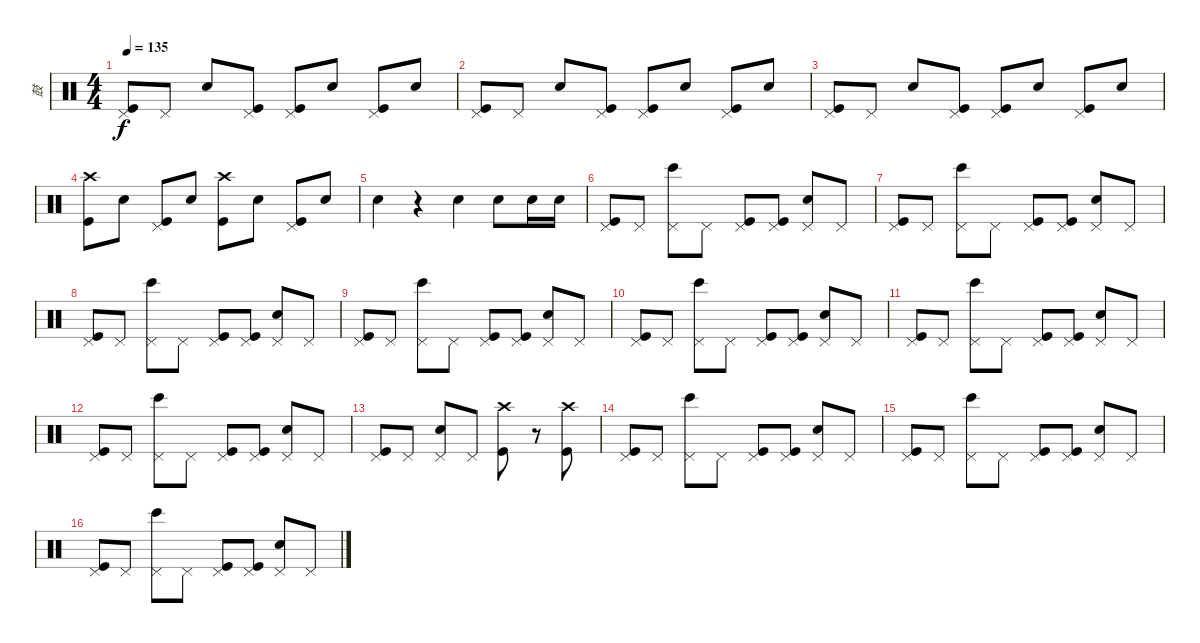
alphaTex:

\track ("鼓" "鼓") {instrument percussion}
\staff {score}
\articulation defaults
\ts (4 4)
\tempo 135
\clef neutral
\ks c
("Pedal Hi-Hat (hit)" "Kick (hit)").8{dy f} "Pedal Hi-Hat (hit)".8 "Snare (hit) 2".8 ("Pedal Hi-Hat (hit)" "Kick (hit)").8 ("Pedal Hi-Hat (hit)" "Kick (hit)").8 "Snare (hit) 2".8 ("Pedal Hi-Hat (hit)" "Kick (hit)").8 "Snare (hit) 2".8 |
("Pedal Hi-Hat (hit)" "Kick (hit)").8 "Pedal Hi-Hat (hit)".8 "Snare (hit) 2".8 ("Pedal Hi-Hat (hit)" "Kick (hit)").8 ("Pedal Hi-Hat (hit)" "Kick (hit)").8 "Snare (hit) 2".8 ("Pedal Hi-Hat (hit)" "Kick (hit)").8 "Snare (hit) 2".8 |
("Pedal Hi-Hat (hit)" "Kick (hit)").8 "Pedal Hi-Hat (hit)".8 "Snare (hit) 2".8 ("Pedal Hi-Hat (hit)" "Kick (hit)").8 ("Pedal Hi-Hat (hit)" "Kick (hit)").8 "Snare (hit) 2".8 ("Pedal Hi-Hat (hit)" "Kick (hit)").8 "Snare (hit) 2".8 |
("Crash high (hit)" "Kick (hit)").8 "Snare (hit) 2".8 ("Pedal Hi-Hat (hit)" "Kick (hit)").8 "Snare (hit) 2".8 ("Crash high (hit)" "Kick (hit)").8 "Snare (hit) 2".8 ("Pedal Hi-Hat (hit)" "Kick (hit)").8 "Snare (hit) 2".8 |
"Snare (hit) 2".4 r.4 "Snare (hit) 2".4 "Snare (hit) 2".8 "Snare (hit) 2".16 "Snare (hit) 2".16 |
("Pedal Hi-Hat (hit)" "Kick (hit)").8 "Pedal Hi-Hat (hit)".8 ("Pedal Hi-Hat (hit)" "Bongo High (hit)").8 "Pedal Hi-Hat (hit)".8 ("Pedal Hi-Hat (hit)" "Kick (hit)").8 ("Pedal Hi-Hat (hit)" "Kick (hit)").8 ("Pedal Hi-Hat (hit)" "Snare (hit) 2").8 "Pedal Hi-Hat (hit)".8 |
("Pedal Hi-Hat (hit)" "Kick (hit)").8 "Pedal Hi-Hat (hit)".8 ("Pedal Hi-Hat (hit)" "Bongo High (hit)").8 "Pedal Hi-Hat (hit)".8 ("Pedal Hi-Hat (hit)" "Kick (hit)").8 ("Pedal Hi-Hat (hit)" "Kick (hit)").8 ("Pedal Hi-Hat (hit)" "Snare (hit) 2").8 "Pedal Hi-Hat (hit)".8 |
("Pedal Hi-Hat (hit)" "Kick (hit)").8 "Pedal Hi-Hat (hit)".8 ("Pedal Hi-Hat (hit)" "Bongo High (hit)").8 "Pedal Hi-Hat (hit)".8 ("Pedal Hi-Hat (hit)" "Kick (hit)").8 ("Pedal Hi-Hat (hit)" "Kick (hit)").8 ("Pedal Hi-Hat (hit)" "Snare (hit) 2").8 "Pedal Hi-Hat (hit)".8 |
("Pedal Hi-Hat (hit)" "Kick (hit)").8 "Pedal Hi-Hat (hit)".8 ("Pedal Hi-Hat (hit)" "Bongo High (hit)").8 "Pedal Hi-Hat (hit)".8 ("Pedal Hi-Hat (hit)" "Kick (hit)").8 ("Pedal Hi-Hat (hit)" "Kick (hit)").8 ("Pedal Hi-Hat (hit)" "Snare (hit) 2").8 "Pedal Hi-Hat (hit)".8 |
("Pedal Hi-Hat (hit)" "Kick (hit)").8 "Pedal Hi-Hat (hit)".8 ("Pedal Hi-Hat (hit)" "Bongo High (hit)").8 "Pedal Hi-Hat (hit)".8 ("Pedal Hi-Hat (hit)" "Kick (hit)").8 ("Pedal Hi-Hat (hit)" "Kick (hit)").8 ("Pedal Hi-Hat (hit)" "Snare (hit) 2").8 "Pedal Hi-Hat (hit)".8 |
("Pedal Hi-Hat (hit)" "Kick (hit)").8 "Pedal Hi-Hat (hit)".8 ("Pedal Hi-Hat (hit)" "Bongo High (hit)").8 "Pedal Hi-Hat (hit)".8 ("Pedal Hi-Hat (hit)" "Kick (hit)").8 ("Pedal Hi-Hat (hit)" "Kick (hit)").8 ("Pedal Hi-Hat (hit)" "Snare (hit) 2").8 "Pedal Hi-Hat (hit)".8 |
("Pedal Hi-Hat (hit)" "Kick (hit)").8 "Pedal Hi-Hat (hit)".8 ("Pedal Hi-Hat (hit)" "Bongo High (hit)").8 "Pedal Hi-Hat (hit)".8 ("Pedal Hi-Hat (hit)" "Kick (hit)").8 ("Pedal Hi-Hat (hit)" "Kick (hit)").8 ("Pedal Hi-Hat (hit)" "Snare (hit) 2").8 "Pedal Hi-Hat (hit)".8 |
("Pedal Hi-Hat (hit)" "Kick (hit)").8 "Pedal Hi-Hat (hit)".8 ("Pedal Hi-Hat (hit)" "Snare (hit) 2").8 "Pedal Hi-Hat (hit)".8 ("Crash high (hit)" "Kick (hit)").8 r.8 ("Crash high (hit)" "Kick (hit)").8 |
("Pedal Hi-Hat (hit)" "Kick (hit)").8 "Pedal Hi-Hat (hit)".8 ("Pedal Hi-Hat (hit)" "Bongo High (hit)").8 "Pedal Hi-Hat (hit)".8 ("Pedal Hi-Hat (hit)" "Kick (hit)").8 ("Pedal Hi-Hat (hit)" "Kick (hit)").8 ("Pedal Hi-Hat (hit)" "Snare (hit) 2").8 "Pedal Hi-Hat (hit)".8 |
("Pedal Hi-Hat (hit)" "Kick (hit)").8 "Pedal Hi-Hat (hit)".8 ("Pedal Hi-Hat (hit)" "Bongo High (hit)").8 "Pedal Hi-Hat (hit)".8 ("Pedal Hi-Hat (hit)" "Kick (hit)").8 ("Pedal Hi-Hat (hit)" "Kick (hit)").8 ("Pedal Hi-Hat (hit)" "Snare (hit) 2").8 "Pedal Hi-Hat (hit)".8 |
("Pedal Hi-Hat (hit)" "Kick (hit)").8 "Pedal Hi-Hat (hit)".8 ("Pedal Hi-Hat (hit)" "Bongo High (hit)").8 "Pedal Hi-Hat (hit)".8 ("Pedal Hi-Hat (hit)" "Kick (hit)").8 ("Pedal Hi-Hat (hit)" "Kick (hit)").8 ("Pedal Hi-Hat (hit)" "Snare (hit) 2").8 "Pedal Hi-Hat (hit)".8
